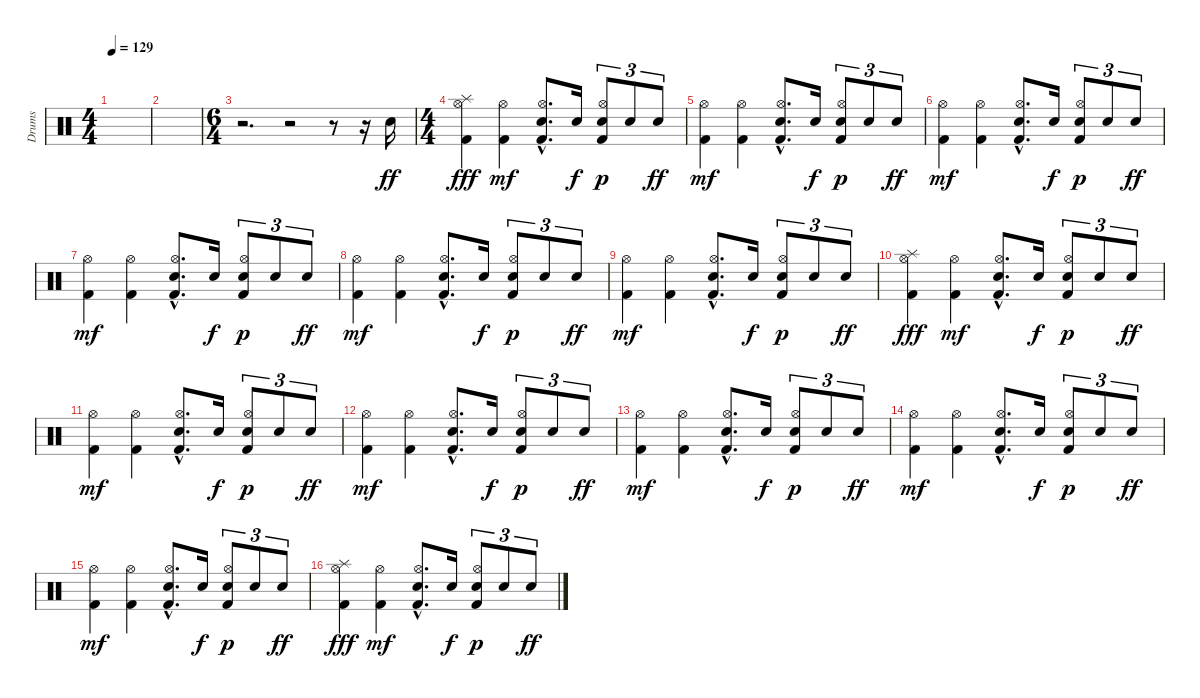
\track ("Drums" "Drums") {instrument percussion}
\staff {score}
\articulation defaults
\ts (4 4)
\tempo 129
\clef neutral
\ks c
|
|
\ts (6 4)
r.2{d} r.2 r.8 r.16 "Electric Snare (hit)".16{dy ff} |
\ts (4 4)
("Hi-Hat (open)" "Splash (hit)" "Kick (hit) 2").4{dy fff} ("Hi-Hat (open)" "Kick (hit) 2").4{dy mf} ("Hi-Hat (open)"{hac} "Electric Snare (hit)"{hac} "Kick (hit) 2"{hac}).8{d} "Electric Snare (hit)".16{dy f} ("Hi-Hat (open)" "Electric Snare (hit)" "Kick (hit) 2").8{tu (3 2) dy p} "Electric Snare (hit)".8{tu (3 2)} "Electric Snare (hit)".8{tu (3 2) dy ff} |
("Hi-Hat (open)" "Kick (hit) 2").4{dy mf} ("Hi-Hat (open)" "Kick (hit) 2").4 ("Hi-Hat (open)"{hac} "Electric Snare (hit)"{hac} "Kick (hit) 2"{hac}).8{d} "Electric Snare (hit)".16{dy f} ("Hi-Hat (open)" "Electric Snare (hit)" "Kick (hit) 2").8{tu (3 2) dy p} "Electric Snare (hit)".8{tu (3 2)} "Electric Snare (hit)".8{tu (3 2) dy ff} |
("Hi-Hat (open)" "Kick (hit) 2").4{dy mf} ("Hi-Hat (open)" "Kick (hit) 2").4 ("Hi-Hat (open)"{hac} "Electric Snare (hit)"{hac} "Kick (hit) 2"{hac}).8{d} "Electric Snare (hit)".16{dy f} ("Hi-Hat (open)" "Electric Snare (hit)" "Kick (hit) 2").8{tu (3 2) dy p} "Electric Snare (hit)".8{tu (3 2)} "Electric Snare (hit)".8{tu (3 2) dy ff} |
("Hi-Hat (open)" "Kick (hit) 2").4{dy mf} ("Hi-Hat (open)" "Kick (hit) 2").4 ("Hi-Hat (open)"{hac} "Electric Snare (hit)"{hac} "Kick (hit) 2"{hac}).8{d} "Electric Snare (hit)".16{dy f} ("Hi-Hat (open)" "Electric Snare (hit)" "Kick (hit) 2").8{tu (3 2) dy p} "Electric Snare (hit)".8{tu (3 2)} "Electric Snare (hit)".8{tu (3 2) dy ff} |
("Hi-Hat (open)" "Kick (hit) 2").4{dy mf} ("Hi-Hat (open)" "Kick (hit) 2").4 ("Hi-Hat (open)"{hac} "Electric Snare (hit)"{hac} "Kick (hit) 2"{hac}).8{d} "Electric Snare (hit)".16{dy f} ("Hi-Hat (open)" "Electric Snare (hit)" "Kick (hit) 2").8{tu (3 2) dy p} "Electric Snare (hit)".8{tu (3 2)} "Electric Snare (hit)".8{tu (3 2) dy ff} |
("Hi-Hat (open)" "Kick (hit) 2").4{dy mf} ("Hi-Hat (open)" "Kick (hit) 2").4 ("Hi-Hat (open)"{hac} "Electric Snare (hit)"{hac} "Kick (hit) 2"{hac}).8{d} "Electric Snare (hit)".16{dy f} ("Hi-Hat (open)" "Electric Snare (hit)" "Kick (hit) 2").8{tu (3 2) dy p} "Electric Snare (hit)".8{tu (3 2)} "Electric Snare (hit)".8{tu (3 2) dy ff} |
("Hi-Hat (open)" "Splash (hit)" "Kick (hit) 2").4{dy fff} ("Hi-Hat (open)" "Kick (hit) 2").4{dy mf} ("Hi-Hat (open)"{hac} "Electric Snare (hit)"{hac} "Kick (hit) 2"{hac}).8{d} "Electric Snare (hit)".16{dy f} ("Hi-Hat (open)" "Electric Snare (hit)" "Kick (hit) 2").8{tu (3 2) dy p} "Electric Snare (hit)".8{tu (3 2)} "Electric Snare (hit)".8{tu (3 2) dy ff} |
("Hi-Hat (open)" "Kick (hit) 2").4{dy mf} ("Hi-Hat (open)" "Kick (hit) 2").4 ("Hi-Hat (open)"{hac} "Electric Snare (hit)"{hac} "Kick (hit) 2"{hac}).8{d} "Electric Snare (hit)".16{dy f} ("Hi-Hat (open)" "Electric Snare (hit)" "Kick (hit) 2").8{tu (3 2) dy p} "Electric Snare (hit)".8{tu (3 2)} "Electric Snare (hit)".8{tu (3 2) dy ff} |
("Hi-Hat (open)" "Kick (hit) 2").4{dy mf} ("Hi-Hat (open)" "Kick (hit) 2").4 ("Hi-Hat (open)"{hac} "Electric Snare (hit)"{hac} "Kick (hit) 2"{hac}).8{d} "Electric Snare (hit)".16{dy f} ("Hi-Hat (open)" "Electric Snare (hit)" "Kick (hit) 2").8{tu (3 2) dy p} "Electric Snare (hit)".8{tu (3 2)} "Electric Snare (hit)".8{tu (3 2) dy ff} |
("Hi-Hat (open)" "Kick (hit) 2").4{dy mf} ("Hi-Hat (open)" "Kick (hit) 2").4 ("Hi-Hat (open)"{hac} "Electric Snare (hit)"{hac} "Kick (hit) 2"{hac}).8{d} "Electric Snare (hit)".16{dy f} ("Hi-Hat (open)" "Electric Snare (hit)" "Kick (hit) 2").8{tu (3 2) dy p} "Electric Snare (hit)".8{tu (3 2)} "Electric Snare (hit)".8{tu (3 2) dy ff} |
("Hi-Hat (open)" "Kick (hit) 2").4{dy mf} ("Hi-Hat (open)" "Kick (hit) 2").4 ("Hi-Hat (open)"{hac} "Electric Snare (hit)"{hac} "Kick (hit) 2"{hac}).8{d} "Electric Snare (hit)".16{dy f} ("Hi-Hat (open)" "Electric Snare (hit)" "Kick (hit) 2").8{tu (3 2) dy p} "Electric Snare (hit)".8{tu (3 2)} "Electric Snare (hit)".8{tu (3 2) dy ff} |
("Hi-Hat (open)" "Kick (hit) 2").4{dy mf} ("Hi-Hat (open)" "Kick (hit) 2").4 ("Hi-Hat (open)"{hac} "Electric Snare (hit)"{hac} "Kick (hit) 2"{hac}).8{d} "Electric Snare (hit)".16{dy f} ("Hi-Hat (open)" "Electric Snare (hit)" "Kick (hit) 2").8{tu (3 2) dy p} "Electric Snare (hit)".8{tu (3 2)} "Electric Snare (hit)".8{tu (3 2) dy ff} |
("Hi-Hat (open)" "Splash (hit)" "Kick (hit) 2").4{dy fff} ("Hi-Hat (open)" "Kick (hit) 2").4{dy mf} ("Hi-Hat (open)"{hac} "Electric Snare (hit)"{hac} "Kick (hit) 2"{hac}).8{d} "Electric Snare (hit)".16{dy f} ("Hi-Hat (open)" "Electric Snare (hit)" "Kick (hit) 2").8{tu (3 2) dy p} "Electric Snare (hit)".8{tu (3 2)} "Electric Snare (hit)".8{tu (3 2) dy ff}
